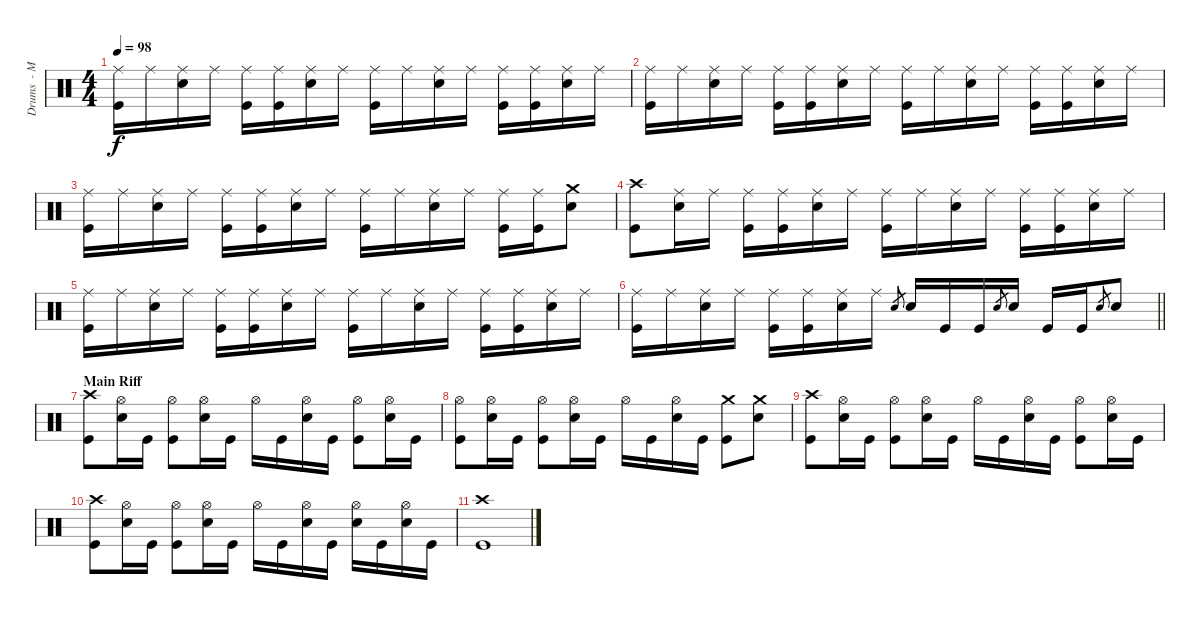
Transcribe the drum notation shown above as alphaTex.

\track ("Drums  - Mikko" "Drums  - M") {instrument percussion}
\staff {score}
\articulation defaults
\ts (4 4)
\tempo 98
\clef neutral
\ks c
("Ride (middle)" "Kick (hit)").16{dy f} "Ride (middle)".16 ("Ride (middle)" "Electric Snare (hit)").16 "Ride (middle)".16 ("Ride (middle)" "Kick (hit)").16 ("Ride (middle)" "Kick (hit)").16 ("Ride (middle)" "Electric Snare (hit)").16 "Ride (middle)".16 ("Ride (middle)" "Kick (hit)").16 "Ride (middle)".16 ("Ride (middle)" "Electric Snare (hit)").16 "Ride (middle)".16 ("Ride (middle)" "Kick (hit)").16 ("Ride (middle)" "Kick (hit)").16 ("Ride (middle)" "Electric Snare (hit)").16 "Ride (middle)".16 |
("Ride (middle)" "Kick (hit)").16 "Ride (middle)".16 ("Ride (middle)" "Electric Snare (hit)").16 "Ride (middle)".16 ("Ride (middle)" "Kick (hit)").16 ("Ride (middle)" "Kick (hit)").16 ("Ride (middle)" "Electric Snare (hit)").16 "Ride (middle)".16 ("Ride (middle)" "Kick (hit)").16 "Ride (middle)".16 ("Ride (middle)" "Electric Snare (hit)").16 "Ride (middle)".16 ("Ride (middle)" "Kick (hit)").16 ("Ride (middle)" "Kick (hit)").16 ("Ride (middle)" "Electric Snare (hit)").16 "Ride (middle)".16 |
("Ride (middle)" "Kick (hit)").16 "Ride (middle)".16 ("Ride (middle)" "Electric Snare (hit)").16 "Ride (middle)".16 ("Ride (middle)" "Kick (hit)").16 ("Ride (middle)" "Kick (hit)").16 ("Ride (middle)" "Electric Snare (hit)").16 "Ride (middle)".16 ("Ride (middle)" "Kick (hit)").16 "Ride (middle)".16 ("Ride (middle)" "Electric Snare (hit)").16 "Ride (middle)".16 ("Ride (middle)" "Kick (hit)").16 ("Ride (middle)" "Kick (hit)").16 ("Crash medium (hit)" "Electric Snare (hit)").8 |
("Crash high (hit)" "Kick (hit)").8 ("Ride (middle)" "Electric Snare (hit)").16 "Ride (middle)".16 ("Ride (middle)" "Kick (hit)").16 ("Ride (middle)" "Kick (hit)").16 ("Ride (middle)" "Electric Snare (hit)").16 "Ride (middle)".16 ("Ride (middle)" "Kick (hit)").16 "Ride (middle)".16 ("Ride (middle)" "Electric Snare (hit)").16 "Ride (middle)".16 ("Ride (middle)" "Kick (hit)").16 ("Ride (middle)" "Kick (hit)").16 ("Ride (middle)" "Electric Snare (hit)").16 "Ride (middle)".16 |
("Ride (middle)" "Kick (hit)").16 "Ride (middle)".16 ("Ride (middle)" "Electric Snare (hit)").16 "Ride (middle)".16 ("Ride (middle)" "Kick (hit)").16 ("Ride (middle)" "Kick (hit)").16 ("Ride (middle)" "Electric Snare (hit)").16 "Ride (middle)".16 ("Ride (middle)" "Kick (hit)").16 "Ride (middle)".16 ("Ride (middle)" "Electric Snare (hit)").16 "Ride (middle)".16 ("Ride (middle)" "Kick (hit)").16 ("Ride (middle)" "Kick (hit)").16 ("Ride (middle)" "Electric Snare (hit)").16 "Ride (middle)".16 |
\barLineRight lightlight
("Ride (middle)" "Kick (hit)").16 "Ride (middle)".16 ("Ride (middle)" "Electric Snare (hit)").16 "Ride (middle)".16 ("Ride (middle)" "Kick (hit)").16 ("Ride (middle)" "Kick (hit)").16 ("Ride (middle)" "Electric Snare (hit)").16 "Ride (middle)".16 "Electric Snare (hit)".8{gr} "Electric Snare (hit)".16 "Kick (hit)".16 "Kick (hit)".16 "Electric Snare (hit)".8{gr} "Electric Snare (hit)".16 "Kick (hit)".16 "Kick (hit)".16 "Electric Snare (hit)".8{gr} "Electric Snare (hit)".8 |
\section ("" "Main Riff")
("Crash high (hit)" "Kick (hit)").8 ("Hi-Hat (open)" "Electric Snare (hit)").16 "Kick (hit)".16 ("Hi-Hat (open)" "Kick (hit)").8 ("Hi-Hat (open)" "Electric Snare (hit)").16 "Kick (hit)".16 "Hi-Hat (open)".16 "Kick (hit)".16 ("Hi-Hat (open)" "Electric Snare (hit)").16 "Kick (hit)".16 ("Hi-Hat (open)" "Kick (hit)").8 ("Hi-Hat (open)" "Electric Snare (hit)").16 "Kick (hit)".16 |
("Hi-Hat (open)" "Kick (hit)").8 ("Hi-Hat (open)" "Electric Snare (hit)").16 "Kick (hit)".16 ("Hi-Hat (open)" "Kick (hit)").8 ("Hi-Hat (open)" "Electric Snare (hit)").16 "Kick (hit)".16 "Hi-Hat (open)".16 "Kick (hit)".16 ("Hi-Hat (open)" "Electric Snare (hit)").16 "Kick (hit)".16 ("Crash medium (hit)" "Kick (hit)").8 ("Crash medium (hit)" "Electric Snare (hit)").8 |
("Crash high (hit)" "Kick (hit)").8 ("Hi-Hat (open)" "Electric Snare (hit)").16 "Kick (hit)".16 ("Hi-Hat (open)" "Kick (hit)").8 ("Hi-Hat (open)" "Electric Snare (hit)").16 "Kick (hit)".16 "Hi-Hat (open)".16 "Kick (hit)".16 ("Hi-Hat (open)" "Electric Snare (hit)").16 "Kick (hit)".16 ("Hi-Hat (open)" "Kick (hit)").8 ("Hi-Hat (open)" "Electric Snare (hit)").16 "Kick (hit)".16 |
("Crash high (hit)" "Kick (hit)").8 ("Hi-Hat (open)" "Electric Snare (hit)").16 "Kick (hit)".16 ("Hi-Hat (open)" "Kick (hit)").8 ("Hi-Hat (open)" "Electric Snare (hit)").16 "Kick (hit)".16 "Hi-Hat (open)".16 "Kick (hit)".16 ("Hi-Hat (open)" "Electric Snare (hit)").16 "Kick (hit)".16 ("Hi-Hat (open)" "Electric Snare (hit)").16 "Kick (hit)".16 ("Hi-Hat (open)" "Electric Snare (hit)").16 "Kick (hit)".16 |
("Crash high (hit)" "Kick (hit)").1
